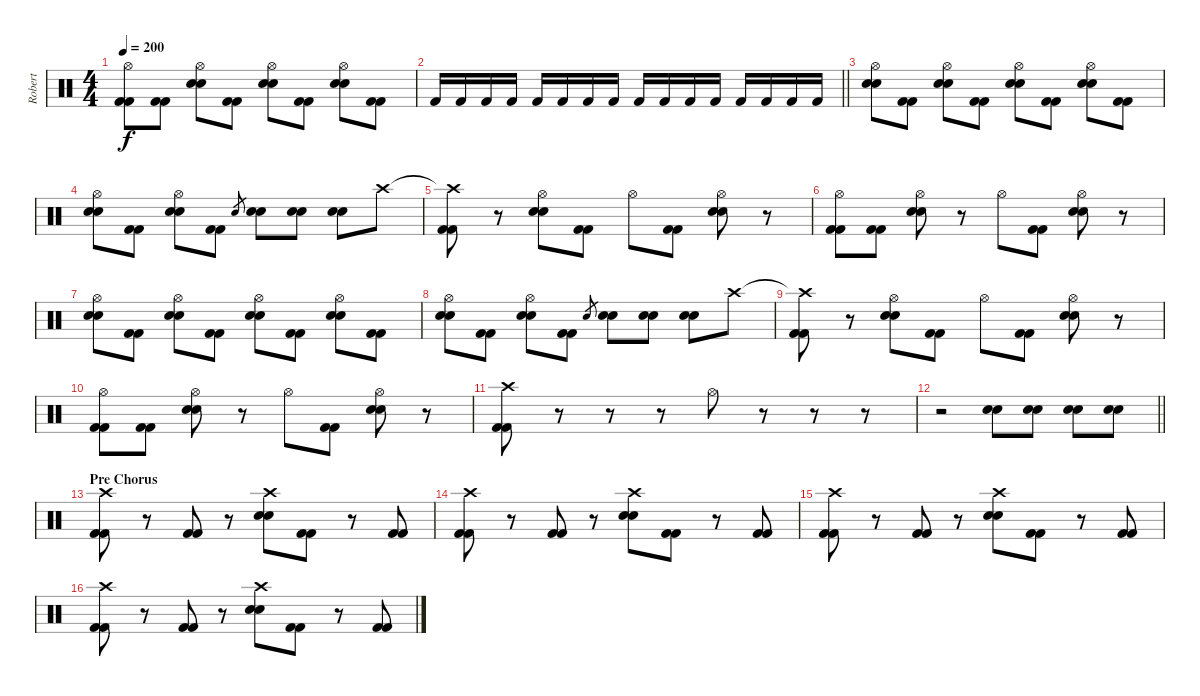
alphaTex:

\track ("Robert" "Robert") {instrument percussion}
\staff {score}
\articulation defaults
\ts (4 4)
\tempo 200
\clef neutral
\ks c
("Hi-Hat (open)" "Kick (hit) 2" "Kick (hit) 2").8{dy f} ("Kick (hit) 2" "Kick (hit) 2").8 ("Hi-Hat (open)" "Electric Snare (hit)" "Electric Snare (hit)").8 ("Kick (hit) 2" "Kick (hit) 2").8 ("Hi-Hat (open)" "Electric Snare (hit)" "Electric Snare (hit)").8 ("Kick (hit) 2" "Kick (hit) 2").8 ("Hi-Hat (open)" "Electric Snare (hit)" "Electric Snare (hit)").8 ("Kick (hit) 2" "Kick (hit) 2").8 |
\barLineRight lightlight "Kick (hit) 2".16 "Kick (hit) 2".16 "Kick (hit) 2".16 "Kick (hit) 2".16 "Kick (hit) 2".16 "Kick (hit) 2".16 "Kick (hit) 2".16 "Kick (hit) 2".16 "Kick (hit) 2".16 "Kick (hit) 2".16 "Kick (hit) 2".16 "Kick (hit) 2".16 "Kick (hit) 2".16 "Kick (hit) 2".16 "Kick (hit) 2".16 "Kick (hit) 2".16
|
("Hi-Hat (open)" "Electric Snare (hit)" "Electric Snare (hit)").8 ("Kick (hit) 2" "Kick (hit) 2").8 ("Hi-Hat (open)" "Electric Snare (hit)" "Electric Snare (hit)").8 ("Kick (hit) 2" "Kick (hit) 2").8 ("Hi-Hat (open)" "Electric Snare (hit)" "Electric Snare (hit)").8 ("Kick (hit) 2" "Kick (hit) 2").8 ("Hi-Hat (open)" "Electric Snare (hit)" "Electric Snare (hit)").8 ("Kick (hit) 2" "Kick (hit) 2").8 |
("Hi-Hat (open)" "Electric Snare (hit)" "Electric Snare (hit)").8 ("Kick (hit) 2" "Kick (hit) 2").8 ("Hi-Hat (open)" "Electric Snare (hit)" "Electric Snare (hit)").8 ("Kick (hit) 2" "Kick (hit) 2").8 "Electric Snare (hit)".8{gr} ("Electric Snare (hit)" "Electric Snare (hit)").8 ("Electric Snare (hit)" "Electric Snare (hit)").8 ("Electric Snare (hit)" "Electric Snare (hit)").8 "Crash high (hit)".8 |
("Crash high (hit)"{t} "Kick (hit) 2" "Kick (hit) 2").8 r.8 ("Hi-Hat (open)" "Electric Snare (hit)" "Electric Snare (hit)").8 ("Kick (hit) 2" "Kick (hit) 2").8 "Hi-Hat (open)".8 ("Kick (hit) 2" "Kick (hit) 2").8 ("Hi-Hat (open)" "Electric Snare (hit)" "Electric Snare (hit)").8 r.8 |
("Hi-Hat (open)" "Kick (hit) 2" "Kick (hit) 2").8 ("Kick (hit) 2" "Kick (hit) 2").8 ("Hi-Hat (open)" "Electric Snare (hit)" "Electric Snare (hit)").8 r.8 "Hi-Hat (open)".8 ("Kick (hit) 2" "Kick (hit) 2").8 ("Hi-Hat (open)" "Electric Snare (hit)" "Electric Snare (hit)").8 r.8 |
("Hi-Hat (open)" "Electric Snare (hit)" "Electric Snare (hit)").8 ("Kick (hit) 2" "Kick (hit) 2").8 ("Hi-Hat (open)" "Electric Snare (hit)" "Electric Snare (hit)").8 ("Kick (hit) 2" "Kick (hit) 2").8 ("Hi-Hat (open)" "Electric Snare (hit)" "Electric Snare (hit)").8 ("Kick (hit) 2" "Kick (hit) 2").8 ("Hi-Hat (open)" "Electric Snare (hit)" "Electric Snare (hit)").8 ("Kick (hit) 2" "Kick (hit) 2").8 |
("Hi-Hat (open)" "Electric Snare (hit)" "Electric Snare (hit)").8 ("Kick (hit) 2" "Kick (hit) 2").8 ("Hi-Hat (open)" "Electric Snare (hit)" "Electric Snare (hit)").8 ("Kick (hit) 2" "Kick (hit) 2").8 "Electric Snare (hit)".8{gr} ("Electric Snare (hit)" "Electric Snare (hit)").8 ("Electric Snare (hit)" "Electric Snare (hit)").8 ("Electric Snare (hit)" "Electric Snare (hit)").8 "Crash high (hit)".8 |
("Crash high (hit)"{t} "Kick (hit) 2" "Kick (hit) 2").8 r.8 ("Hi-Hat (open)" "Electric Snare (hit)" "Electric Snare (hit)").8 ("Kick (hit) 2" "Kick (hit) 2").8 "Hi-Hat (open)".8 ("Kick (hit) 2" "Kick (hit) 2").8 ("Hi-Hat (open)" "Electric Snare (hit)" "Electric Snare (hit)").8 r.8 |
("Hi-Hat (open)" "Kick (hit) 2" "Kick (hit) 2").8 ("Kick (hit) 2" "Kick (hit) 2").8 ("Hi-Hat (open)" "Electric Snare (hit)" "Electric Snare (hit)").8 r.8 "Hi-Hat (open)".8 ("Kick (hit) 2" "Kick (hit) 2").8 ("Hi-Hat (open)" "Electric Snare (hit)" "Electric Snare (hit)").8 r.8 |
("Crash high (hit)" "Kick (hit) 2" "Kick (hit) 2").8 r.8 r.8 r.8 "Hi-Hat (open)".8 r.8 r.8 r.8 |
\barLineRight lightlight
r.2 ("Electric Snare (hit)" "Electric Snare (hit)").8 ("Electric Snare (hit)" "Electric Snare (hit)").8 ("Electric Snare (hit)" "Electric Snare (hit)").8 ("Electric Snare (hit)" "Electric Snare (hit)").8 |
\section ("" "Pre Chorus")
("Crash high (hit)" "Kick (hit) 2" "Kick (hit) 2").8 r.8 ("Kick (hit) 2" "Kick (hit) 2").8 r.8 ("Crash high (hit)" "Electric Snare (hit)" "Electric Snare (hit)").8 ("Kick (hit) 2" "Kick (hit) 2").8 r.8 ("Kick (hit) 2" "Kick (hit) 2").8 |
("Crash high (hit)" "Kick (hit) 2" "Kick (hit) 2").8 r.8 ("Kick (hit) 2" "Kick (hit) 2").8 r.8 ("Crash high (hit)" "Electric Snare (hit)" "Electric Snare (hit)").8 ("Kick (hit) 2" "Kick (hit) 2").8 r.8 ("Kick (hit) 2" "Kick (hit) 2").8 |
("Crash high (hit)" "Kick (hit) 2" "Kick (hit) 2").8 r.8 ("Kick (hit) 2" "Kick (hit) 2").8 r.8 ("Crash high (hit)" "Electric Snare (hit)" "Electric Snare (hit)").8 ("Kick (hit) 2" "Kick (hit) 2").8 r.8 ("Kick (hit) 2" "Kick (hit) 2").8 |
("Crash high (hit)" "Kick (hit) 2" "Kick (hit) 2").8 r.8 ("Kick (hit) 2" "Kick (hit) 2").8 r.8 ("Crash high (hit)" "Electric Snare (hit)" "Electric Snare (hit)").8 ("Kick (hit) 2" "Kick (hit) 2").8 r.8 ("Kick (hit) 2" "Kick (hit) 2").8
